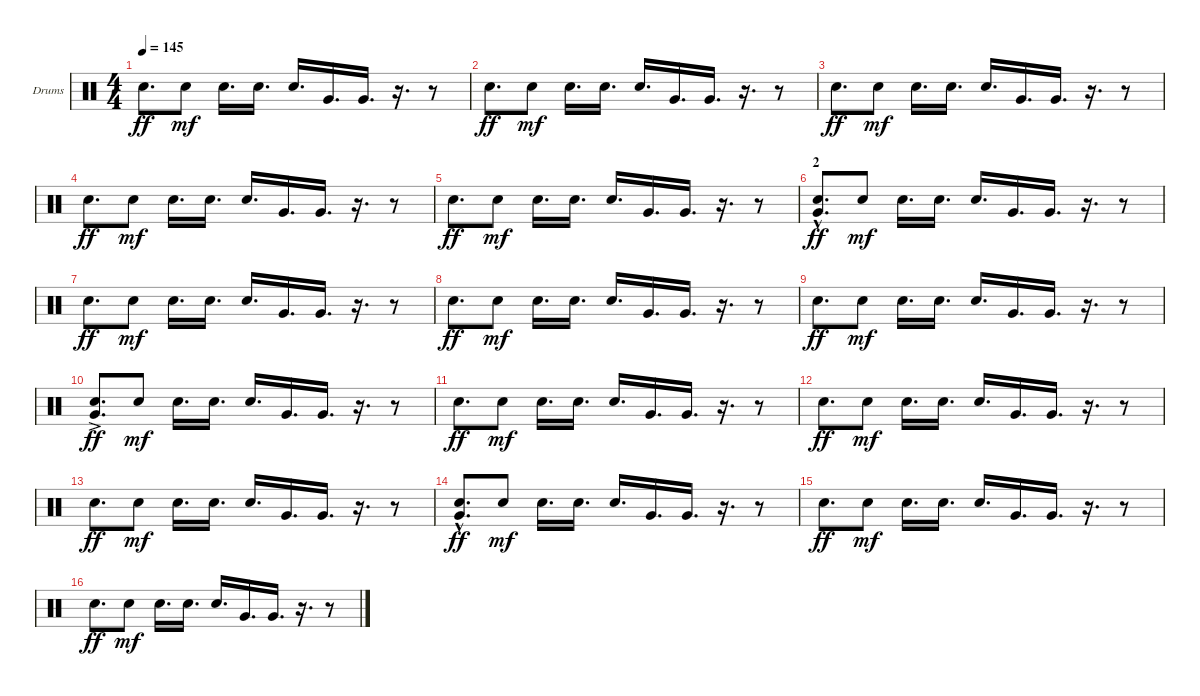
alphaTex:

\defaultSystemsLayout 4
\bracketExtendMode groupsimilarinstruments
\firstSystemTrackNameOrientation horizontal
\otherSystemsTrackNameOrientation horizontal
\track ("Drumkit" "Drums") {instrument percussion}
\staff {score}
\articulation defaults
\ts (4 4)
\tempo 145
\clef neutral
\scale
0.333333
\ks c "Snare (hit) 2".8{d dy ff} "Snare (hit) 2".8{dy mf} "Snare (hit) 2".16{d} "Snare (hit) 2".16{d} "Snare (hit) 2".16{d} "Very Low Tom (hit)".16{d} "Very Low Tom (hit)".16{d}
r.16{d} r.8 |
\scale
0.333333 "Snare (hit) 2".8{d dy ff} "Snare (hit) 2".8{dy mf} "Snare (hit) 2".16{d} "Snare (hit) 2".16{d} "Snare (hit) 2".16{d} "Very Low Tom (hit)".16{d} "Very Low Tom (hit)".16{d} r.16{d} r.8 |
"Snare (hit) 2".8{d dy ff} "Snare (hit) 2".8{dy mf} "Snare (hit) 2".16{d} "Snare (hit) 2".16{d} "Snare (hit) 2".16{d} "Very Low Tom (hit)".16{d} "Very Low Tom (hit)".16{d} r.16{d} r.8 |
"Snare (hit) 2".8{d dy ff} "Snare (hit) 2".8{dy mf} "Snare (hit) 2".16{d} "Snare (hit) 2".16{d} "Snare (hit) 2".16{d} "Very Low Tom (hit)".16{d} "Very Low Tom (hit)".16{d} r.16{d} r.8 |
"Snare (hit) 2".8{d dy ff} "Snare (hit) 2".8{dy mf} "Snare (hit) 2".16{d} "Snare (hit) 2".16{d} "Snare (hit) 2".16{d} "Very Low Tom (hit)".16{d} "Very Low Tom (hit)".16{d} r.16{d} r.8 |
\section ("" "2")
("Snare (hit) 2" "Very Low Tom (hit)"{hac}).8{d dy ff} "Snare (hit) 2".8{dy mf} "Snare (hit) 2".16{d} "Snare (hit) 2".16{d} "Snare (hit) 2".16{d} "Very Low Tom (hit)".16{d} "Very Low Tom (hit)".16{d} r.16{d} r.8 |
"Snare (hit) 2".8{d dy ff} "Snare (hit) 2".8{dy mf} "Snare (hit) 2".16{d} "Snare (hit) 2".16{d} "Snare (hit) 2".16{d} "Very Low Tom (hit)".16{d} "Very Low Tom (hit)".16{d} r.16{d} r.8 |
"Snare (hit) 2".8{d dy ff} "Snare (hit) 2".8{dy mf} "Snare (hit) 2".16{d} "Snare (hit) 2".16{d} "Snare (hit) 2".16{d} "Very Low Tom (hit)".16{d} "Very Low Tom (hit)".16{d} r.16{d} r.8 |
"Snare (hit) 2".8{d dy ff} "Snare (hit) 2".8{dy mf} "Snare (hit) 2".16{d} "Snare (hit) 2".16{d} "Snare (hit) 2".16{d} "Very Low Tom (hit)".16{d} "Very Low Tom (hit)".16{d} r.16{d} r.8 |
("Snare (hit) 2" "Very Low Tom (hit)"{ac}).8{d dy ff} "Snare (hit) 2".8{dy mf} "Snare (hit) 2".16{d} "Snare (hit) 2".16{d} "Snare (hit) 2".16{d} "Very Low Tom (hit)".16{d} "Very Low Tom (hit)".16{d} r.16{d} r.8 |
"Snare (hit) 2".8{d dy ff} "Snare (hit) 2".8{dy mf} "Snare (hit) 2".16{d} "Snare (hit) 2".16{d} "Snare (hit) 2".16{d} "Very Low Tom (hit)".16{d} "Very Low Tom (hit)".16{d} r.16{d} r.8 |
"Snare (hit) 2".8{d dy ff} "Snare (hit) 2".8{dy mf} "Snare (hit) 2".16{d} "Snare (hit) 2".16{d} "Snare (hit) 2".16{d} "Very Low Tom (hit)".16{d} "Very Low Tom (hit)".16{d} r.16{d} r.8 |
"Snare (hit) 2".8{d dy ff} "Snare (hit) 2".8{dy mf} "Snare (hit) 2".16{d} "Snare (hit) 2".16{d} "Snare (hit) 2".16{d} "Very Low Tom (hit)".16{d} "Very Low Tom (hit)".16{d} r.16{d} r.8 |
("Snare (hit) 2" "Very Low Tom (hit)"{hac}).8{d dy ff} "Snare (hit) 2".8{dy mf} "Snare (hit) 2".16{d} "Snare (hit) 2".16{d} "Snare (hit) 2".16{d} "Very Low Tom (hit)".16{d} "Very Low Tom (hit)".16{d} r.16{d} r.8 |
"Snare (hit) 2".8{d dy ff} "Snare (hit) 2".8{dy mf} "Snare (hit) 2".16{d} "Snare (hit) 2".16{d} "Snare (hit) 2".16{d} "Very Low Tom (hit)".16{d} "Very Low Tom (hit)".16{d} r.16{d} r.8 |
"Snare (hit) 2".8{d dy ff} "Snare (hit) 2".8{dy mf} "Snare (hit) 2".16{d} "Snare (hit) 2".16{d} "Snare (hit) 2".16{d} "Very Low Tom (hit)".16{d} "Very Low Tom (hit)".16{d} r.16{d} r.8
